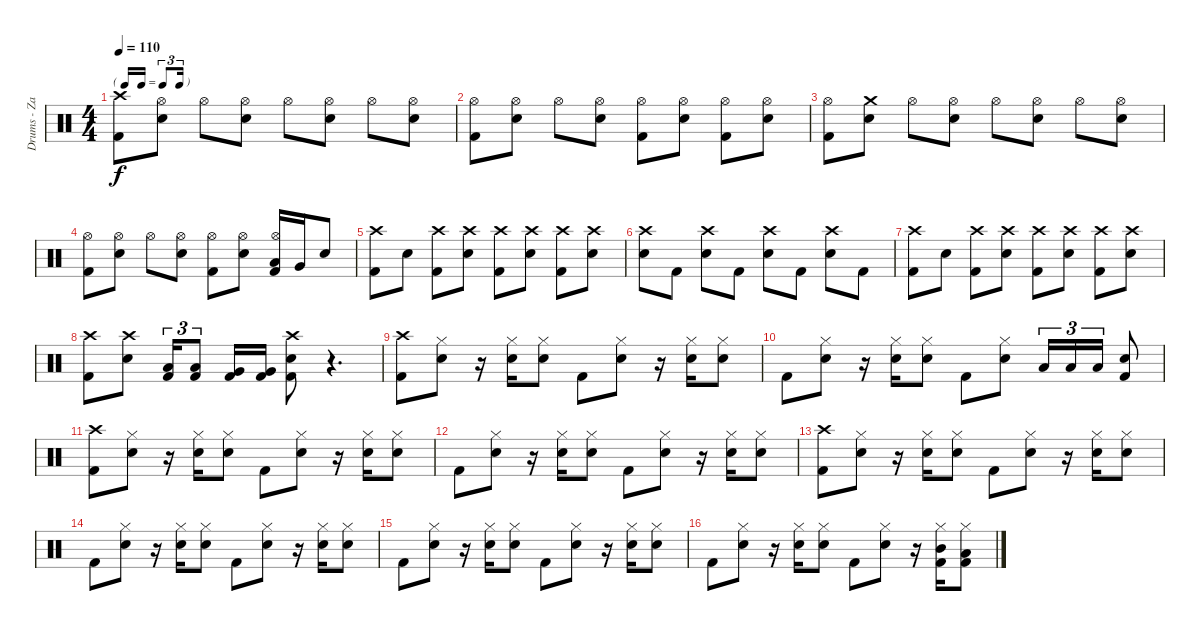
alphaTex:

\track ("Drums - Zac" "Drums - Za") {instrument percussion}
\staff {score}
\articulation defaults
\ts (4 4)
\tf triplet16th
\tempo 110
\clef neutral
\ks c
("Crash high (hit)" "Kick (hit) 2").8{dy f} ("Hi-Hat (open)" "Snare (hit) 2").8 "Hi-Hat (open)".8 ("Hi-Hat (open)" "Snare (hit) 2").8 "Hi-Hat (open)".8 ("Hi-Hat (open)" "Snare (hit) 2").8 "Hi-Hat (open)".8 ("Hi-Hat (open)" "Snare (hit) 2").8 |
("Hi-Hat (open)" "Kick (hit) 2").8 ("Hi-Hat (open)" "Snare (hit) 2").8 "Hi-Hat (open)".8 ("Hi-Hat (open)" "Snare (hit) 2").8 ("Hi-Hat (open)" "Kick (hit) 2").8 ("Hi-Hat (open)" "Snare (hit) 2").8 ("Hi-Hat (open)" "Kick (hit) 2").8 ("Hi-Hat (open)" "Snare (hit) 2").8 |
("Hi-Hat (open)" "Kick (hit) 2").8 ("Crash medium (hit)" "Snare (hit) 2").8 "Hi-Hat (open)".8 ("Hi-Hat (open)" "Snare (hit) 2").8 "Hi-Hat (open)".8 ("Hi-Hat (open)" "Snare (hit) 2").8 "Hi-Hat (open)".8 ("Hi-Hat (open)" "Snare (hit) 2").8 |
("Hi-Hat (open)" "Kick (hit) 2").8 ("Hi-Hat (open)" "Snare (hit) 2").8 "Hi-Hat (open)".8 ("Hi-Hat (open)" "Snare (hit) 2").8 ("Hi-Hat (open)" "Kick (hit) 2").8 ("Hi-Hat (open)" "Snare (hit) 2").8 ("Hi-Hat (open)" "Low Tom (hit)" "Kick (hit) 2").16 "Very Low Tom (hit)".16 "Snare (hit) 2".8 |
("Crash high (hit)" "Kick (hit) 2").8 "Snare (hit) 2".8 ("Crash high (hit)" "Kick (hit) 2").8 ("Crash high (hit)" "Snare (hit) 2").8 ("Crash high (hit)" "Kick (hit) 2").8 ("Crash high (hit)" "Snare (hit) 2").8 ("Crash high (hit)" "Kick (hit) 2").8 ("Crash high (hit)" "Snare (hit) 2").8 |
("Crash high (hit)" "Snare (hit) 2").8 "Kick (hit) 2".8 ("Crash high (hit)" "Snare (hit) 2").8 "Kick (hit) 2".8 ("Crash high (hit)" "Snare (hit) 2").8 "Kick (hit) 2".8 ("Crash high (hit)" "Snare (hit) 2").8 "Kick (hit) 2".8 |
("Crash high (hit)" "Kick (hit) 2").8 "Snare (hit) 2".8 ("Crash high (hit)" "Kick (hit) 2").8 ("Crash high (hit)" "Snare (hit) 2").8 ("Crash high (hit)" "Kick (hit) 2").8 ("Crash high (hit)" "Snare (hit) 2").8 ("Crash high (hit)" "Kick (hit) 2").8 ("Crash high (hit)" "Snare (hit) 2").8 |
("Crash high (hit)" "Kick (hit) 2").8 ("Crash high (hit)" "Snare (hit) 2").8 ("Low Tom (hit)" "Kick (hit) 2").16{tu (3 2)} ("Low Tom (hit)" "Kick (hit) 2").8{tu (3 2)} ("Very Low Tom (hit)" "Kick (hit) 2").16 ("Very Low Tom (hit)" "Kick (hit) 2").16 ("Crash high (hit)" "Snare (hit) 2" "Kick (hit) 2").8 r.4{d volume 0} |
("Crash high (hit)" "Kick (hit) 2").8{volume 12} ("Hi-Hat (closed)" "Snare (hit) 2").8 r.16 ("Hi-Hat (closed)" "Snare (hit) 2").16 ("Hi-Hat (closed)" "Snare (hit) 2").8 "Kick (hit) 2".8 ("Hi-Hat (closed)" "Snare (hit) 2").8 r.16 ("Hi-Hat (closed)" "Snare (hit) 2").16 ("Hi-Hat (closed)" "Snare (hit) 2").8 |
"Kick (hit) 2".8 ("Hi-Hat (closed)" "Snare (hit) 2").8 r.16 ("Hi-Hat (closed)" "Snare (hit) 2").16 ("Hi-Hat (closed)" "Snare (hit) 2").8 "Kick (hit) 2".8 ("Hi-Hat (closed)" "Snare (hit) 2").8 "Low Tom (hit)".16{tu (3 2)} "Low Tom (hit)".16{tu (3 2)} "Low Tom (hit)".16{tu (3 2)} ("Snare (hit) 2" "Kick (hit) 2").8 |
("Crash high (hit)" "Kick (hit) 2").8 ("Hi-Hat (closed)" "Snare (hit) 2").8 r.16 ("Hi-Hat (closed)" "Snare (hit) 2").16 ("Hi-Hat (closed)" "Snare (hit) 2").8 "Kick (hit) 2".8 ("Hi-Hat (closed)" "Snare (hit) 2").8 r.16 ("Hi-Hat (closed)" "Snare (hit) 2").16 ("Hi-Hat (closed)" "Snare (hit) 2").8 |
"Kick (hit) 2".8 ("Hi-Hat (closed)" "Snare (hit) 2").8 r.16 ("Hi-Hat (closed)" "Snare (hit) 2").16 ("Hi-Hat (closed)" "Snare (hit) 2").8 "Kick (hit) 2".8 ("Hi-Hat (closed)" "Snare (hit) 2").8 r.16 ("Hi-Hat (closed)" "Snare (hit) 2").16 ("Hi-Hat (closed)" "Snare (hit) 2").8 |
("Crash high (hit)" "Kick (hit) 2").8 ("Hi-Hat (closed)" "Snare (hit) 2").8 r.16 ("Hi-Hat (closed)" "Snare (hit) 2").16 ("Hi-Hat (closed)" "Snare (hit) 2").8 "Kick (hit) 2".8 ("Hi-Hat (closed)" "Snare (hit) 2").8 r.16 ("Hi-Hat (closed)" "Snare (hit) 2").16 ("Hi-Hat (closed)" "Snare (hit) 2").8 |
"Kick (hit) 2".8 ("Hi-Hat (closed)" "Snare (hit) 2").8 r.16 ("Hi-Hat (closed)" "Snare (hit) 2").16 ("Hi-Hat (closed)" "Snare (hit) 2").8 "Kick (hit) 2".8 ("Hi-Hat (closed)" "Snare (hit) 2").8 r.16 ("Hi-Hat (closed)" "Snare (hit) 2").16 ("Hi-Hat (closed)" "Snare (hit) 2").8 |
"Kick (hit) 2".8 ("Hi-Hat (closed)" "Snare (hit) 2").8 r.16 ("Hi-Hat (closed)" "Snare (hit) 2").16 ("Hi-Hat (closed)" "Snare (hit) 2").8 "Kick (hit) 2".8 ("Hi-Hat (closed)" "Snare (hit) 2").8 r.16 ("Hi-Hat (closed)" "Snare (hit) 2").16 ("Hi-Hat (closed)" "Snare (hit) 2").8 |
"Kick (hit) 2".8 ("Hi-Hat (closed)" "Snare (hit) 2").8 r.16 ("Hi-Hat (closed)" "Snare (hit) 2").16 ("Hi-Hat (closed)" "Snare (hit) 2").8 "Kick (hit) 2".8 ("Hi-Hat (closed)" "Snare (hit) 2").8 r.16 ("Hi-Hat (closed)" "Mid Tom (hit)" "Kick (hit) 2").16 ("Hi-Hat (closed)" "Low Tom (hit)" "Kick (hit) 2").8
